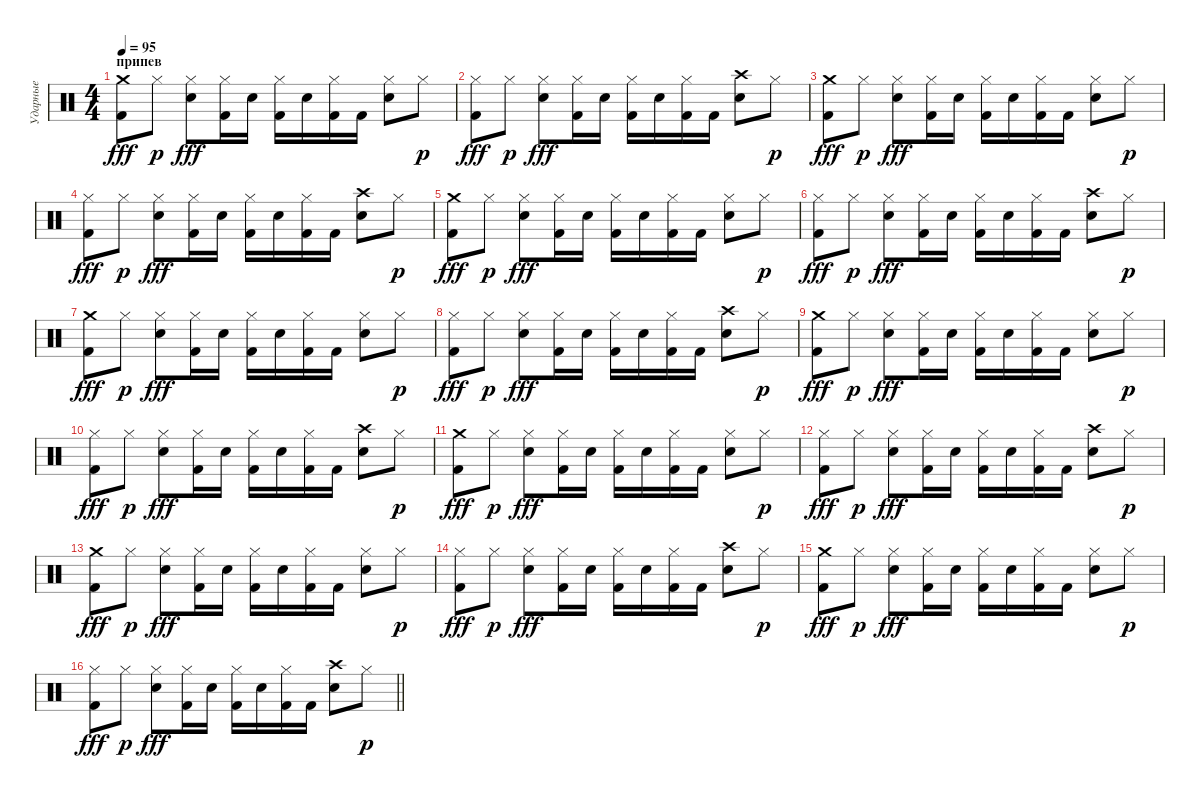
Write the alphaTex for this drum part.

\track ("Ударные" "Ударные") {instrument percussion}
\staff {score}
\articulation defaults
\ts (4 4)
\section ("" "припев")
\tempo 95
\clef neutral
\ks c
("Crash medium (hit)" "Kick (hit) 2").8{dy fff} "Hi-Hat (closed)".8{dy p} ("Hi-Hat (closed)" "Snare (hit) 2").8{dy fff} ("Hi-Hat (closed)" "Kick (hit) 2").16 "Snare (hit) 2".16 ("Hi-Hat (closed)" "Kick (hit) 2").16 "Snare (hit) 2".16 ("Hi-Hat (closed)" "Kick (hit) 2").16 "Kick (hit) 2".16 ("Hi-Hat (closed)" "Snare (hit) 2").8 "Hi-Hat (closed)".8{dy p} |
("Hi-Hat (closed)" "Kick (hit) 2").8{dy fff} "Hi-Hat (closed)".8{dy p} ("Hi-Hat (closed)" "Snare (hit) 2").8{dy fff} ("Hi-Hat (closed)" "Kick (hit) 2").16 "Snare (hit) 2".16 ("Hi-Hat (closed)" "Kick (hit) 2").16 "Snare (hit) 2".16 ("Hi-Hat (closed)" "Kick (hit) 2").16 "Kick (hit) 2".16 ("Crash high (hit)" "Snare (hit) 2").8 "Hi-Hat (closed)".8{dy p} |
("Crash medium (hit)" "Kick (hit) 2").8{dy fff} "Hi-Hat (closed)".8{dy p} ("Hi-Hat (closed)" "Snare (hit) 2").8{dy fff} ("Hi-Hat (closed)" "Kick (hit) 2").16 "Snare (hit) 2".16 ("Hi-Hat (closed)" "Kick (hit) 2").16 "Snare (hit) 2".16 ("Hi-Hat (closed)" "Kick (hit) 2").16 "Kick (hit) 2".16 ("Hi-Hat (closed)" "Snare (hit) 2").8 "Hi-Hat (closed)".8{dy p} |
("Hi-Hat (closed)" "Kick (hit) 2").8{dy fff} "Hi-Hat (closed)".8{dy p} ("Hi-Hat (closed)" "Snare (hit) 2").8{dy fff} ("Hi-Hat (closed)" "Kick (hit) 2").16 "Snare (hit) 2".16 ("Hi-Hat (closed)" "Kick (hit) 2").16 "Snare (hit) 2".16 ("Hi-Hat (closed)" "Kick (hit) 2").16 "Kick (hit) 2".16 ("Crash high (hit)" "Snare (hit) 2").8 "Hi-Hat (closed)".8{dy p} |
("Crash medium (hit)" "Kick (hit) 2").8{dy fff} "Hi-Hat (closed)".8{dy p} ("Hi-Hat (closed)" "Snare (hit) 2").8{dy fff} ("Hi-Hat (closed)" "Kick (hit) 2").16 "Snare (hit) 2".16 ("Hi-Hat (closed)" "Kick (hit) 2").16 "Snare (hit) 2".16 ("Hi-Hat (closed)" "Kick (hit) 2").16 "Kick (hit) 2".16 ("Hi-Hat (closed)" "Snare (hit) 2").8 "Hi-Hat (closed)".8{dy p} |
("Hi-Hat (closed)" "Kick (hit) 2").8{dy fff} "Hi-Hat (closed)".8{dy p} ("Hi-Hat (closed)" "Snare (hit) 2").8{dy fff} ("Hi-Hat (closed)" "Kick (hit) 2").16 "Snare (hit) 2".16 ("Hi-Hat (closed)" "Kick (hit) 2").16 "Snare (hit) 2".16 ("Hi-Hat (closed)" "Kick (hit) 2").16 "Kick (hit) 2".16 ("Crash high (hit)" "Snare (hit) 2").8 "Hi-Hat (closed)".8{dy p} |
("Crash medium (hit)" "Kick (hit) 2").8{dy fff} "Hi-Hat (closed)".8{dy p} ("Hi-Hat (closed)" "Snare (hit) 2").8{dy fff} ("Hi-Hat (closed)" "Kick (hit) 2").16 "Snare (hit) 2".16 ("Hi-Hat (closed)" "Kick (hit) 2").16 "Snare (hit) 2".16 ("Hi-Hat (closed)" "Kick (hit) 2").16 "Kick (hit) 2".16 ("Hi-Hat (closed)" "Snare (hit) 2").8 "Hi-Hat (closed)".8{dy p} |
("Hi-Hat (closed)" "Kick (hit) 2").8{dy fff} "Hi-Hat (closed)".8{dy p} ("Hi-Hat (closed)" "Snare (hit) 2").8{dy fff} ("Hi-Hat (closed)" "Kick (hit) 2").16 "Snare (hit) 2".16 ("Hi-Hat (closed)" "Kick (hit) 2").16 "Snare (hit) 2".16 ("Hi-Hat (closed)" "Kick (hit) 2").16 "Kick (hit) 2".16 ("Crash high (hit)" "Snare (hit) 2").8 "Hi-Hat (closed)".8{dy p} |
("Crash medium (hit)" "Kick (hit) 2").8{dy fff} "Hi-Hat (closed)".8{dy p} ("Hi-Hat (closed)" "Snare (hit) 2").8{dy fff} ("Hi-Hat (closed)" "Kick (hit) 2").16 "Snare (hit) 2".16 ("Hi-Hat (closed)" "Kick (hit) 2").16 "Snare (hit) 2".16 ("Hi-Hat (closed)" "Kick (hit) 2").16 "Kick (hit) 2".16 ("Hi-Hat (closed)" "Snare (hit) 2").8 "Hi-Hat (closed)".8{dy p} |
("Hi-Hat (closed)" "Kick (hit) 2").8{dy fff} "Hi-Hat (closed)".8{dy p} ("Hi-Hat (closed)" "Snare (hit) 2").8{dy fff} ("Hi-Hat (closed)" "Kick (hit) 2").16 "Snare (hit) 2".16 ("Hi-Hat (closed)" "Kick (hit) 2").16 "Snare (hit) 2".16 ("Hi-Hat (closed)" "Kick (hit) 2").16 "Kick (hit) 2".16 ("Crash high (hit)" "Snare (hit) 2").8 "Hi-Hat (closed)".8{dy p} |
("Crash medium (hit)" "Kick (hit) 2").8{dy fff} "Hi-Hat (closed)".8{dy p} ("Hi-Hat (closed)" "Snare (hit) 2").8{dy fff} ("Hi-Hat (closed)" "Kick (hit) 2").16 "Snare (hit) 2".16 ("Hi-Hat (closed)" "Kick (hit) 2").16 "Snare (hit) 2".16 ("Hi-Hat (closed)" "Kick (hit) 2").16 "Kick (hit) 2".16 ("Hi-Hat (closed)" "Snare (hit) 2").8 "Hi-Hat (closed)".8{dy p} |
("Hi-Hat (closed)" "Kick (hit) 2").8{dy fff} "Hi-Hat (closed)".8{dy p} ("Hi-Hat (closed)" "Snare (hit) 2").8{dy fff} ("Hi-Hat (closed)" "Kick (hit) 2").16 "Snare (hit) 2".16 ("Hi-Hat (closed)" "Kick (hit) 2").16 "Snare (hit) 2".16 ("Hi-Hat (closed)" "Kick (hit) 2").16 "Kick (hit) 2".16 ("Crash high (hit)" "Snare (hit) 2").8 "Hi-Hat (closed)".8{dy p} |
("Crash medium (hit)" "Kick (hit) 2").8{dy fff} "Hi-Hat (closed)".8{dy p} ("Hi-Hat (closed)" "Snare (hit) 2").8{dy fff} ("Hi-Hat (closed)" "Kick (hit) 2").16 "Snare (hit) 2".16 ("Hi-Hat (closed)" "Kick (hit) 2").16 "Snare (hit) 2".16 ("Hi-Hat (closed)" "Kick (hit) 2").16 "Kick (hit) 2".16 ("Hi-Hat (closed)" "Snare (hit) 2").8 "Hi-Hat (closed)".8{dy p} |
("Hi-Hat (closed)" "Kick (hit) 2").8{dy fff} "Hi-Hat (closed)".8{dy p} ("Hi-Hat (closed)" "Snare (hit) 2").8{dy fff} ("Hi-Hat (closed)" "Kick (hit) 2").16 "Snare (hit) 2".16 ("Hi-Hat (closed)" "Kick (hit) 2").16 "Snare (hit) 2".16 ("Hi-Hat (closed)" "Kick (hit) 2").16 "Kick (hit) 2".16 ("Crash high (hit)" "Snare (hit) 2").8 "Hi-Hat (closed)".8{dy p} |
("Crash medium (hit)" "Kick (hit) 2").8{dy fff} "Hi-Hat (closed)".8{dy p} ("Hi-Hat (closed)" "Snare (hit) 2").8{dy fff} ("Hi-Hat (closed)" "Kick (hit) 2").16 "Snare (hit) 2".16 ("Hi-Hat (closed)" "Kick (hit) 2").16 "Snare (hit) 2".16 ("Hi-Hat (closed)" "Kick (hit) 2").16 "Kick (hit) 2".16 ("Hi-Hat (closed)" "Snare (hit) 2").8 "Hi-Hat (closed)".8{dy p} |
\barLineRight lightlight
("Hi-Hat (closed)" "Kick (hit) 2").8{dy fff} "Hi-Hat (closed)".8{dy p} ("Hi-Hat (closed)" "Snare (hit) 2").8{dy fff} ("Hi-Hat (closed)" "Kick (hit) 2").16 "Snare (hit) 2".16 ("Hi-Hat (closed)" "Kick (hit) 2").16 "Snare (hit) 2".16 ("Hi-Hat (closed)" "Kick (hit) 2").16 "Kick (hit) 2".16 ("Crash high (hit)" "Snare (hit) 2").8 "Hi-Hat (closed)".8{dy p}
